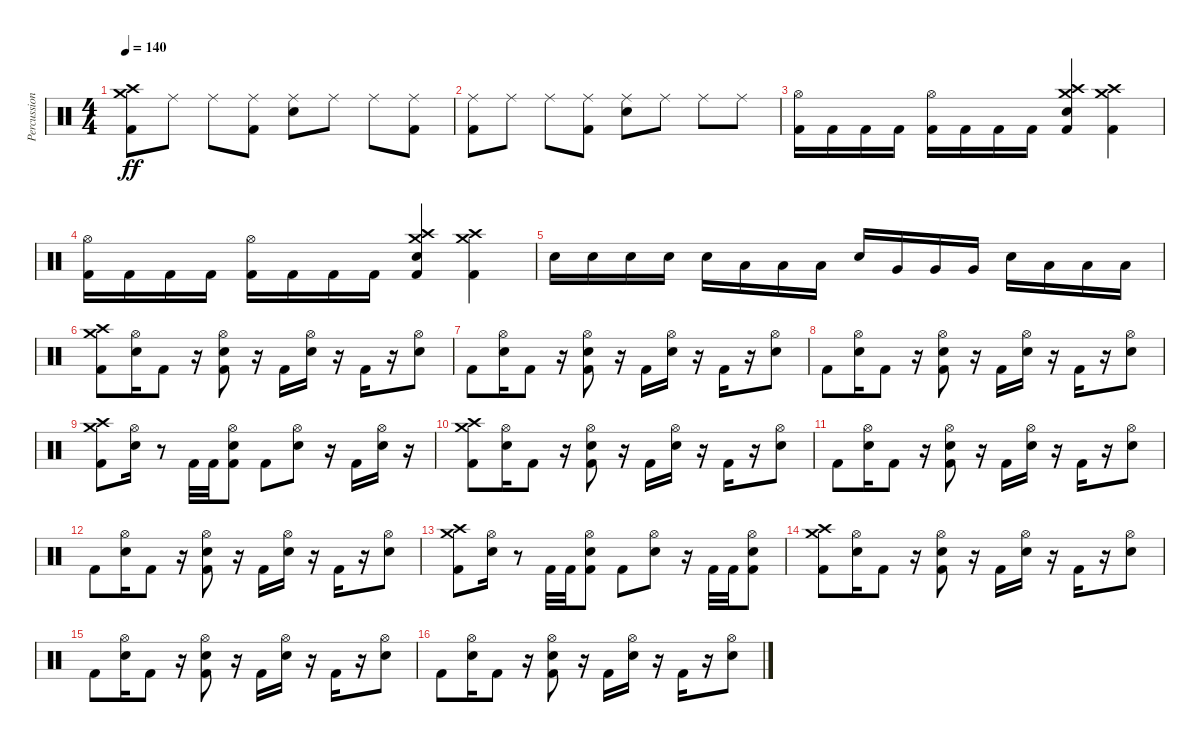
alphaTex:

\track ("Percussion" "Percussion") {instrument percussion}
\staff {score}
\articulation defaults
\ts (4 4)
\tempo 140
\clef neutral
\ks c
("Kick (hit) 2" "Crash medium (hit)" "Crash high (hit)").8{dy ff} "Ride (middle)".8 "Ride (middle)".8 ("Kick (hit) 2" "Ride (middle)").8 ("Electric Snare (hit)" "Ride (middle)").8 "Ride (middle)".8 "Ride (middle)".8 ("Kick (hit) 2" "Ride (middle)").8 |
("Kick (hit) 2" "Ride (middle)").8 "Ride (middle)".8 "Ride (middle)".8 ("Kick (hit) 2" "Ride (middle)").8 ("Electric Snare (hit)" "Ride (middle)").8 "Ride (middle)".8 "Ride (middle)".8 "Ride (middle)".8 |
("Kick (hit) 2" "Hi-Hat (open)").16 "Kick (hit) 2".16 "Kick (hit) 2".16 "Kick (hit) 2".16 ("Kick (hit) 2" "Hi-Hat (open)").16 "Kick (hit) 2".16 "Kick (hit) 2".16 "Kick (hit) 2".16 ("Kick (hit) 2" "Electric Snare (hit)" "Crash medium (hit)" "Crash high (hit)").4 ("Kick (hit) 2" "Crash medium (hit)" "Crash high (hit)").4 |
("Kick (hit) 2" "Hi-Hat (open)").16 "Kick (hit) 2".16 "Kick (hit) 2".16 "Kick (hit) 2".16 ("Kick (hit) 2" "Hi-Hat (open)").16 "Kick (hit) 2".16 "Kick (hit) 2".16 "Kick (hit) 2".16 ("Kick (hit) 2" "Electric Snare (hit)" "Crash medium (hit)" "Crash high (hit)").4 ("Kick (hit) 2" "Crash medium (hit)" "Crash high (hit)").4 |
"Electric Snare (hit)".16 "Electric Snare (hit)".16 "Electric Snare (hit)".16 "Electric Snare (hit)".16 "Electric Snare (hit)".16 "Low Tom (hit)".16 "Low Tom (hit)".16 "Low Tom (hit)".16 "Electric Snare (hit)".16 "Very Low Tom (hit)".16 "Very Low Tom (hit)".16 "Very Low Tom (hit)".16 "Electric Snare (hit)".16 "Low Floor Tom (hit)".16 "Low Floor Tom (hit)".16 "Low Floor Tom (hit)".16 |
("Kick (hit) 2" "Crash medium (hit)" "Crash high (hit)").8 ("Electric Snare (hit)" "Hi-Hat (open)").16 "Kick (hit) 2".8 r.16 ("Kick (hit) 2" "Electric Snare (hit)" "Hi-Hat (open)").8 r.16 "Kick (hit) 2".16 ("Electric Snare (hit)" "Hi-Hat (open)").16 r.16 "Kick (hit) 2".16 r.16 ("Electric Snare (hit)" "Hi-Hat (open)").8 |
"Kick (hit) 2".8 ("Electric Snare (hit)" "Hi-Hat (open)").16 "Kick (hit) 2".8 r.16 ("Kick (hit) 2" "Electric Snare (hit)" "Hi-Hat (open)").8 r.16 "Kick (hit) 2".16 ("Electric Snare (hit)" "Hi-Hat (open)").16 r.16 "Kick (hit) 2".16 r.16 ("Electric Snare (hit)" "Hi-Hat (open)").8 |
"Kick (hit) 2".8 ("Electric Snare (hit)" "Hi-Hat (open)").16 "Kick (hit) 2".8 r.16 ("Kick (hit) 2" "Electric Snare (hit)" "Hi-Hat (open)").8 r.16 "Kick (hit) 2".16 ("Electric Snare (hit)" "Hi-Hat (open)").16 r.16 "Kick (hit) 2".16 r.16 ("Electric Snare (hit)" "Hi-Hat (open)").8 |
("Kick (hit) 2" "Crash medium (hit)" "Crash high (hit)").8 ("Electric Snare (hit)" "Hi-Hat (open)").16 r.8 "Kick (hit) 2".32 "Kick (hit) 2".32 ("Kick (hit) 2" "Electric Snare (hit)" "Hi-Hat (open)").8 "Kick (hit) 2".8 ("Electric Snare (hit)" "Hi-Hat (open)").8 r.16 "Kick (hit) 2".16 ("Electric Snare (hit)" "Hi-Hat (open)").16 r.16 |
("Kick (hit) 2" "Crash medium (hit)" "Crash high (hit)").8 ("Electric Snare (hit)" "Hi-Hat (open)").16 "Kick (hit) 2".8 r.16 ("Kick (hit) 2" "Electric Snare (hit)" "Hi-Hat (open)").8 r.16 "Kick (hit) 2".16 ("Electric Snare (hit)" "Hi-Hat (open)").16 r.16 "Kick (hit) 2".16 r.16 ("Electric Snare (hit)" "Hi-Hat (open)").8 |
"Kick (hit) 2".8 ("Electric Snare (hit)" "Hi-Hat (open)").16 "Kick (hit) 2".8 r.16 ("Kick (hit) 2" "Electric Snare (hit)" "Hi-Hat (open)").8 r.16 "Kick (hit) 2".16 ("Electric Snare (hit)" "Hi-Hat (open)").16 r.16 "Kick (hit) 2".16 r.16 ("Electric Snare (hit)" "Hi-Hat (open)").8 |
"Kick (hit) 2".8 ("Electric Snare (hit)" "Hi-Hat (open)").16 "Kick (hit) 2".8 r.16 ("Kick (hit) 2" "Electric Snare (hit)" "Hi-Hat (open)").8 r.16 "Kick (hit) 2".16 ("Electric Snare (hit)" "Hi-Hat (open)").16 r.16 "Kick (hit) 2".16 r.16 ("Electric Snare (hit)" "Hi-Hat (open)").8 |
("Kick (hit) 2" "Crash medium (hit)" "Crash high (hit)").8 ("Electric Snare (hit)" "Hi-Hat (open)").16 r.8 "Kick (hit) 2".32 "Kick (hit) 2".32 ("Kick (hit) 2" "Electric Snare (hit)" "Hi-Hat (open)").8 "Kick (hit) 2".8 ("Electric Snare (hit)" "Hi-Hat (open)").8 r.16 "Kick (hit) 2".32 "Kick (hit) 2".32 ("Kick (hit) 2" "Electric Snare (hit)" "Hi-Hat (open)").8 |
("Kick (hit) 2" "Crash medium (hit)" "Crash high (hit)").8 ("Electric Snare (hit)" "Hi-Hat (open)").16 "Kick (hit) 2".8 r.16 ("Kick (hit) 2" "Electric Snare (hit)" "Hi-Hat (open)").8 r.16 "Kick (hit) 2".16 ("Electric Snare (hit)" "Hi-Hat (open)").16 r.16 "Kick (hit) 2".16 r.16 ("Electric Snare (hit)" "Hi-Hat (open)").8 |
"Kick (hit) 2".8 ("Electric Snare (hit)" "Hi-Hat (open)").16 "Kick (hit) 2".8 r.16 ("Kick (hit) 2" "Electric Snare (hit)" "Hi-Hat (open)").8 r.16 "Kick (hit) 2".16 ("Electric Snare (hit)" "Hi-Hat (open)").16 r.16 "Kick (hit) 2".16 r.16 ("Electric Snare (hit)" "Hi-Hat (open)").8 |
"Kick (hit) 2".8 ("Electric Snare (hit)" "Hi-Hat (open)").16 "Kick (hit) 2".8 r.16 ("Kick (hit) 2" "Electric Snare (hit)" "Hi-Hat (open)").8 r.16 "Kick (hit) 2".16 ("Electric Snare (hit)" "Hi-Hat (open)").16 r.16 "Kick (hit) 2".16 r.16 ("Electric Snare (hit)" "Hi-Hat (open)").8
